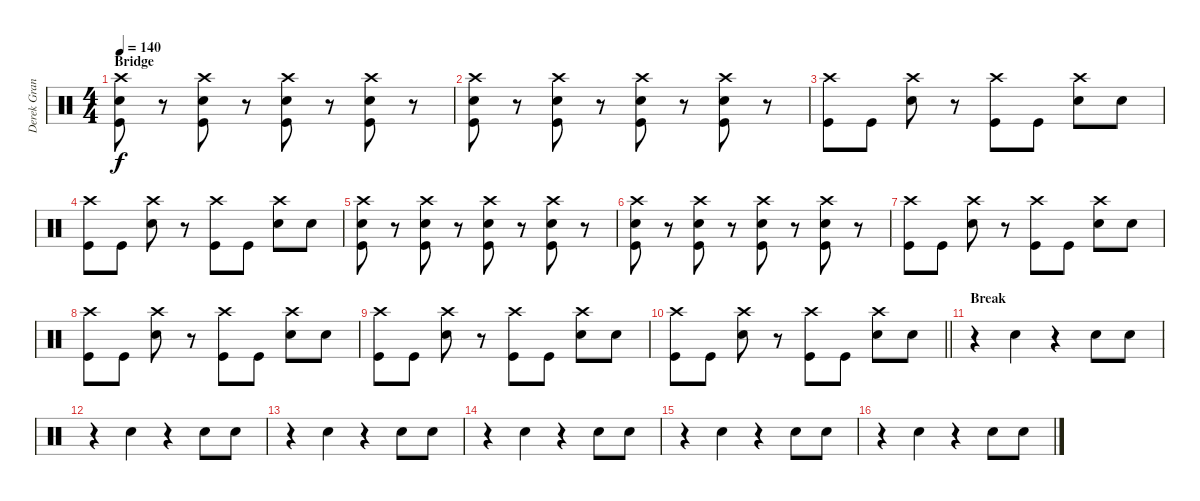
\track ("Derek Grant" "Derek Gran") {instrument percussion}
\staff {score}
\articulation defaults
\ts (4 4)
\section ("" "Bridge")
\tempo 140
\clef neutral
\ks c
("Crash high (hit)" "Snare (hit) 2" "Kick (hit)").8{dy f} r.8 ("Crash high (hit)" "Snare (hit) 2" "Kick (hit)").8 r.8 ("Crash high (hit)" "Snare (hit) 2" "Kick (hit)").8 r.8 ("Crash high (hit)" "Snare (hit) 2" "Kick (hit)").8 r.8 |
("Crash high (hit)" "Snare (hit) 2" "Kick (hit)").8 r.8 ("Crash high (hit)" "Snare (hit) 2" "Kick (hit)").8 r.8 ("Crash high (hit)" "Snare (hit) 2" "Kick (hit)").8 r.8 ("Crash high (hit)" "Snare (hit) 2" "Kick (hit)").8 r.8 |
("Crash high (hit)" "Kick (hit)").8 "Kick (hit)".8 ("Crash high (hit)" "Snare (hit) 2").8 r.8 ("Crash high (hit)" "Kick (hit)").8 "Kick (hit)".8 ("Crash high (hit)" "Snare (hit) 2").8 "Snare (hit) 2".8 |
("Crash high (hit)" "Kick (hit)").8 "Kick (hit)".8 ("Crash high (hit)" "Snare (hit) 2").8 r.8 ("Crash high (hit)" "Kick (hit)").8 "Kick (hit)".8 ("Crash high (hit)" "Snare (hit) 2").8 "Snare (hit) 2".8 |
("Crash high (hit)" "Snare (hit) 2" "Kick (hit)").8 r.8 ("Crash high (hit)" "Snare (hit) 2" "Kick (hit)").8 r.8 ("Crash high (hit)" "Snare (hit) 2" "Kick (hit)").8 r.8 ("Crash high (hit)" "Snare (hit) 2" "Kick (hit)").8 r.8 |
("Crash high (hit)" "Snare (hit) 2" "Kick (hit)").8 r.8 ("Crash high (hit)" "Snare (hit) 2" "Kick (hit)").8 r.8 ("Crash high (hit)" "Snare (hit) 2" "Kick (hit)").8 r.8 ("Crash high (hit)" "Snare (hit) 2" "Kick (hit)").8 r.8 |
("Crash high (hit)" "Kick (hit)").8 "Kick (hit)".8 ("Crash high (hit)" "Snare (hit) 2").8 r.8 ("Crash high (hit)" "Kick (hit)").8 "Kick (hit)".8 ("Crash high (hit)" "Snare (hit) 2").8 "Snare (hit) 2".8 |
("Crash high (hit)" "Kick (hit)").8 "Kick (hit)".8 ("Crash high (hit)" "Snare (hit) 2").8 r.8 ("Crash high (hit)" "Kick (hit)").8 "Kick (hit)".8 ("Crash high (hit)" "Snare (hit) 2").8 "Snare (hit) 2".8 |
("Crash high (hit)" "Kick (hit)").8 "Kick (hit)".8 ("Crash high (hit)" "Snare (hit) 2").8 r.8 ("Crash high (hit)" "Kick (hit)").8 "Kick (hit)".8 ("Crash high (hit)" "Snare (hit) 2").8 "Snare (hit) 2".8 |
\barLineRight lightlight
("Crash high (hit)" "Kick (hit)").8 "Kick (hit)".8 ("Crash high (hit)" "Snare (hit) 2").8 r.8 ("Crash high (hit)" "Kick (hit)").8 "Kick (hit)".8 ("Crash high (hit)" "Snare (hit) 2").8 "Snare (hit) 2".8 |
\section ("" "Break")
r.4 "Hand Clap (hit)".4 r.4 "Hand Clap (hit)".8 "Hand Clap (hit)".8 |
r.4 "Hand Clap (hit)".4 r.4 "Hand Clap (hit)".8 "Hand Clap (hit)".8 |
r.4 "Hand Clap (hit)".4 r.4 "Hand Clap (hit)".8 "Hand Clap (hit)".8 |
r.4 "Hand Clap (hit)".4 r.4 "Hand Clap (hit)".8 "Hand Clap (hit)".8 |
r.4 "Hand Clap (hit)".4 r.4 "Hand Clap (hit)".8 "Hand Clap (hit)".8 |
r.4 "Hand Clap (hit)".4 r.4 "Hand Clap (hit)".8 "Hand Clap (hit)".8
